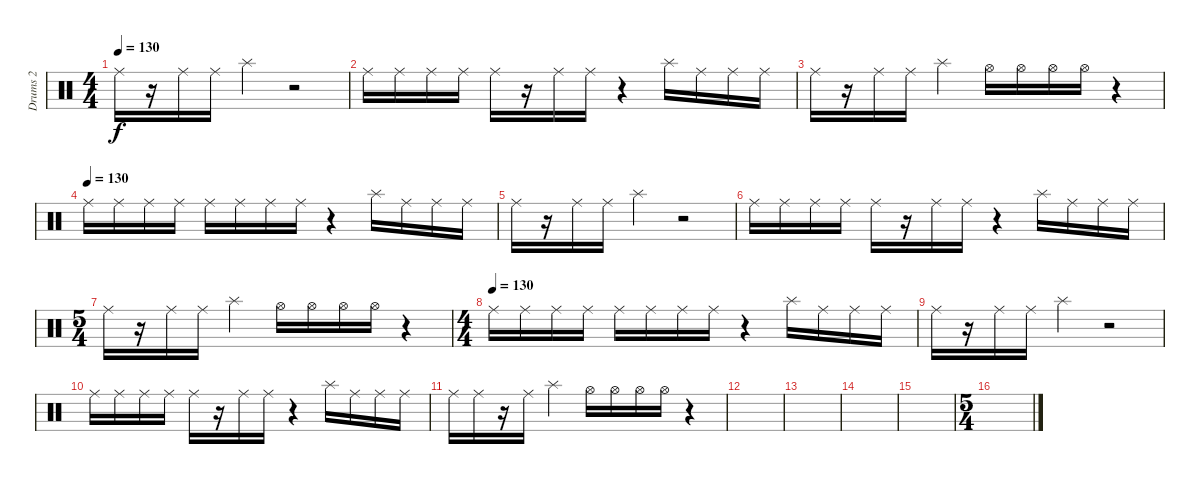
\track ("Drums 2" "Drums 2") {instrument percussion}
\staff {score}
\articulation defaults
\ts (4 4)
\tempo 130
\clef neutral
\ks c "Ride (middle)".16{dy f}
r.16 "Ride (middle)".16 "Ride (middle)".16 "Splash (hit)".4 r.2 |
"Ride (middle)".16 "Ride (middle)".16 "Ride (middle)".16 "Ride (middle)".16 "Ride (middle)".16 r.16 "Ride (middle)".16 "Ride (middle)".16 r.4 "Splash (hit)".16 "Ride (middle)".16 "Ride (middle)".16 "Ride (middle)".16 |
"Ride (middle)".16 r.16 "Ride (middle)".16 "Ride (middle)".16 "Splash (hit)".4 "Hi-Hat (open)".16 "Hi-Hat (open)".16 "Hi-Hat (open)".16 "Hi-Hat (open)".16 r.4 |
\tempo (130)
"Ride (middle)".16 "Ride (middle)".16 "Ride (middle)".16 "Ride (middle)".16 "Ride (middle)".16 "Ride (middle)".16 "Ride (middle)".16 "Ride (middle)".16 r.4 "Splash (hit)".16 "Ride (middle)".16 "Ride (middle)".16 "Ride (middle)".16 |
"Ride (middle)".16 r.16 "Ride (middle)".16 "Ride (middle)".16 "Splash (hit)".4 r.2 |
"Ride (middle)".16 "Ride (middle)".16 "Ride (middle)".16 "Ride (middle)".16 "Ride (middle)".16 r.16 "Ride (middle)".16 "Ride (middle)".16 r.4 "Splash (hit)".16 "Ride (middle)".16 "Ride (middle)".16 "Ride (middle)".16 |
\ts (5 4)
"Ride (middle)".16 r.16 "Ride (middle)".16 "Ride (middle)".16 "Splash (hit)".4 "Hi-Hat (open)".16 "Hi-Hat (open)".16 "Hi-Hat (open)".16 "Hi-Hat (open)".16 r.4 |
\ts (4 4)
\tempo (130)
"Ride (middle)".16 "Ride (middle)".16 "Ride (middle)".16 "Ride (middle)".16 "Ride (middle)".16 "Ride (middle)".16 "Ride (middle)".16 "Ride (middle)".16 r.4 "Splash (hit)".16 "Ride (middle)".16 "Ride (middle)".16 "Ride (middle)".16 |
"Ride (middle)".16 r.16 "Ride (middle)".16 "Ride (middle)".16 "Splash (hit)".4 r.2 |
"Ride (middle)".16 "Ride (middle)".16 "Ride (middle)".16 "Ride (middle)".16 "Ride (middle)".16 r.16 "Ride (middle)".16 "Ride (middle)".16 r.4 "Splash (hit)".16 "Ride (middle)".16 "Ride (middle)".16 "Ride (middle)".16 |
"Ride (middle)".16 "Ride (middle)".16 r.16 "Ride (middle)".16 "Splash (hit)".4 "Hi-Hat (open)".16 "Hi-Hat (open)".16 "Hi-Hat (open)".16 "Hi-Hat (open)".16 r.4 |
|
|
|
|
\ts (5 4)
